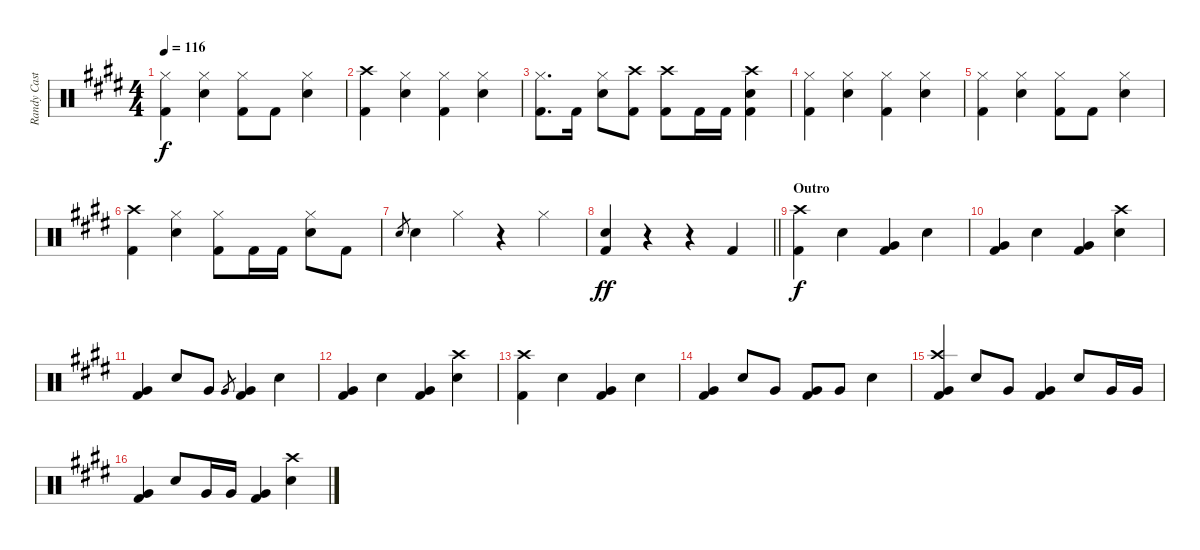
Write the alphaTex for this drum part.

\track ("Randy Castillo" "Randy Cast") {instrument percussion}
\staff {score}
\articulation defaults
\ts (4 4)
\tempo 116
\clef neutral
\ks e
("Hi-Hat (closed)" "Kick (hit) 2").4{dy f} ("Hi-Hat (closed)" "Snare (hit) 2").4 ("Hi-Hat (closed)" "Kick (hit) 2").8 "Kick (hit) 2".8 ("Hi-Hat (closed)" "Snare (hit) 2").4 |
("Kick (hit) 2" "Crash high (hit)").4 ("Hi-Hat (closed)" "Snare (hit) 2").4 ("Hi-Hat (closed)" "Kick (hit) 2").4 ("Hi-Hat (closed)" "Snare (hit) 2").4 |
("Hi-Hat (closed)" "Kick (hit) 2").8{d} "Kick (hit) 2".16 ("Hi-Hat (closed)" "Snare (hit) 2").8 ("Kick (hit) 2" "Crash high (hit)").8 ("Kick (hit) 2" "Crash high (hit)").8 "Kick (hit) 2".16 "Kick (hit) 2".16 ("Snare (hit) 2" "Kick (hit) 2" "Crash high (hit)").4 |
("Hi-Hat (closed)" "Kick (hit) 2").4 ("Hi-Hat (closed)" "Snare (hit) 2").4 ("Hi-Hat (closed)" "Kick (hit) 2").4 ("Hi-Hat (closed)" "Snare (hit) 2").4 |
("Hi-Hat (closed)" "Kick (hit) 2").4 ("Hi-Hat (closed)" "Snare (hit) 2").4 ("Hi-Hat (closed)" "Kick (hit) 2").8 "Kick (hit) 2".8 ("Hi-Hat (closed)" "Snare (hit) 2").4 |
("Kick (hit) 2" "Crash high (hit)").4 ("Hi-Hat (closed)" "Snare (hit) 2").4 ("Hi-Hat (closed)" "Kick (hit) 2").8 "Kick (hit) 2".16 "Kick (hit) 2".16 ("Hi-Hat (closed)" "Snare (hit) 2").8 "Kick (hit) 2".8 |
"Snare (hit) 2".8{gr} "Snare (hit) 2".4 "Hi-Hat (closed)".4 r.4 "Hi-Hat (closed)".4 |
\barLineRight lightlight
("Snare (hit) 2" "Kick (hit) 2").4{dy ff} r.4 r.4 "Kick (hit) 2".4 |
\section ("" "Outro")
("Kick (hit) 2" "Crash high (hit)").4{dy f} "Snare (hit) 2".4 ("Kick (hit) 2" "Very Low Tom (hit)").4 "Snare (hit) 2".4 |
("Kick (hit) 2" "Very Low Tom (hit)").4 "Snare (hit) 2".4 ("Kick (hit) 2" "Very Low Tom (hit)").4 ("Snare (hit) 2" "Crash high (hit)").4 |
("Kick (hit) 2" "Very Low Tom (hit)").4 "Snare (hit) 2".8 "Very Low Tom (hit)".8 "Very Low Tom (hit)".8{gr} ("Kick (hit) 2" "Very Low Tom (hit)").4 "Snare (hit) 2".4 |
("Kick (hit) 2" "Very Low Tom (hit)").4 "Snare (hit) 2".4 ("Kick (hit) 2" "Very Low Tom (hit)").4 ("Snare (hit) 2" "Crash high (hit)").4 |
("Kick (hit) 2" "Crash high (hit)").4 "Snare (hit) 2".4 ("Kick (hit) 2" "Very Low Tom (hit)").4 "Snare (hit) 2".4 |
("Kick (hit) 2" "Very Low Tom (hit)").4 "Snare (hit) 2".8 "Very Low Tom (hit)".8 ("Kick (hit) 2" "Very Low Tom (hit)").8 "Very Low Tom (hit)".8 "Snare (hit) 2".4 |
("Kick (hit) 2" "Very Low Tom (hit)" "Crash high (hit)").4 "Snare (hit) 2".8 "Very Low Tom (hit)".8 ("Kick (hit) 2" "Very Low Tom (hit)").4 "Snare (hit) 2".8 "Very Low Tom (hit)".16 "Very Low Tom (hit)".16 |
("Kick (hit) 2" "Very Low Tom (hit)").4 "Snare (hit) 2".8 "Very Low Tom (hit)".16 "Very Low Tom (hit)".16 ("Kick (hit) 2" "Very Low Tom (hit)").4 ("Snare (hit) 2" "Crash high (hit)").4
